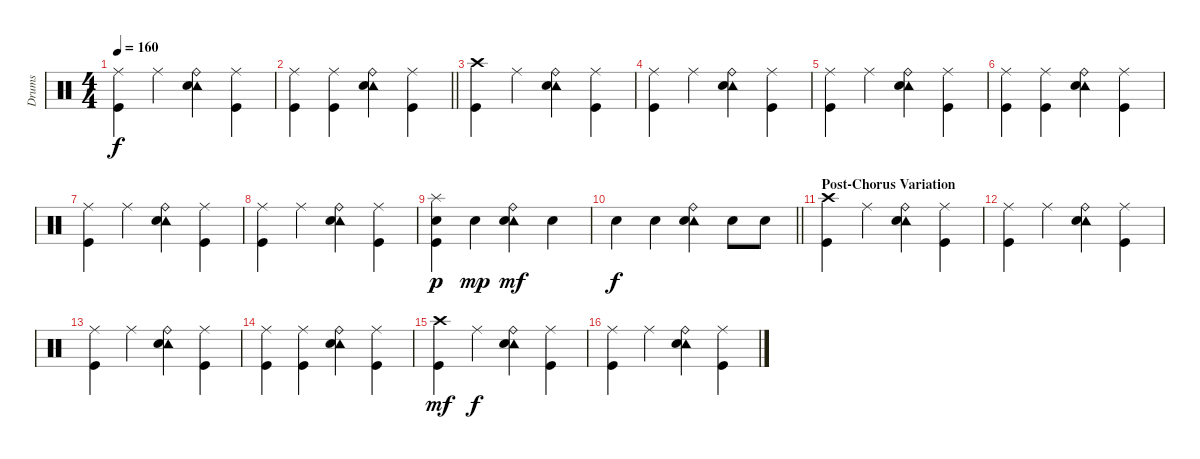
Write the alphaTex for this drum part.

\track ("Drums" "Drums") {instrument percussion}
\staff {score}
\articulation defaults
\ts (4 4)
\tempo 160
\clef neutral
\ks c
("Ride (middle)" "Kick (hit)").4{dy f} "Ride (middle)".4 ("Tambourine (hit)" "Ride (bell)" "Electric Snare (hit)").4 ("Ride (middle)" "Kick (hit)").4 |
\barLineRight lightlight
("Ride (middle)" "Kick (hit)").4 ("Ride (middle)" "Kick (hit)").4 ("Tambourine (hit)" "Ride (bell)" "Electric Snare (hit)").4 ("Ride (middle)" "Kick (hit)").4 |
("Crash high (hit)" "Kick (hit)").4 "Ride (middle)".4 ("Tambourine (hit)" "Ride (bell)" "Electric Snare (hit)").4 ("Ride (middle)" "Kick (hit)").4 |
("Ride (middle)" "Kick (hit)").4 "Ride (middle)".4 ("Tambourine (hit)" "Ride (bell)" "Electric Snare (hit)").4 ("Ride (middle)" "Kick (hit)").4 |
("Ride (middle)" "Kick (hit)").4 "Ride (middle)".4 ("Tambourine (hit)" "Ride (bell)" "Electric Snare (hit)").4 ("Ride (middle)" "Kick (hit)").4 |
("Ride (middle)" "Kick (hit)").4 ("Ride (middle)" "Kick (hit)").4 ("Tambourine (hit)" "Ride (bell)" "Electric Snare (hit)").4 ("Ride (middle)" "Kick (hit)").4 |
("Ride (middle)" "Kick (hit)").4 "Ride (middle)".4 ("Tambourine (hit)" "Ride (bell)" "Electric Snare (hit)").4 ("Ride (middle)" "Kick (hit)").4 |
("Ride (middle)" "Kick (hit)").4 "Ride (middle)".4 ("Tambourine (hit)" "Ride (bell)" "Electric Snare (hit)").4 ("Ride (middle)" "Kick (hit)").4 |
("Splash (hit)" "Electric Snare (hit)" "Kick (hit)").4{dy p} "Electric Snare (hit)".4{dy mp} ("Tambourine (hit)" "Ride (bell)" "Electric Snare (hit)").4{dy mf} "Electric Snare (hit)".4 |
\barLineRight lightlight "Electric Snare (hit)".4{dy f} "Electric Snare (hit)".4
("Tambourine (hit)" "Ride (bell)" "Electric Snare (hit)").4 "Electric Snare (hit)".8 "Electric Snare (hit)".8 |
\section ("" "Post-Chorus Variation")
("Crash high (hit)" "Kick (hit)").4 "Ride (middle)".4 ("Tambourine (hit)" "Ride (bell)" "Electric Snare (hit)").4 ("Ride (middle)" "Kick (hit)").4 |
("Ride (middle)" "Kick (hit)").4 "Ride (middle)".4 ("Tambourine (hit)" "Ride (bell)" "Electric Snare (hit)").4 ("Ride (middle)" "Kick (hit)").4 |
("Ride (middle)" "Kick (hit)").4 "Ride (middle)".4 ("Tambourine (hit)" "Ride (bell)" "Electric Snare (hit)").4 ("Ride (middle)" "Kick (hit)").4 |
("Ride (middle)" "Kick (hit)").4 ("Ride (middle)" "Kick (hit)").4 ("Tambourine (hit)" "Ride (bell)" "Electric Snare (hit)").4 ("Ride (middle)" "Kick (hit)").4 |
("Crash high (hit)" "Kick (hit)").4{dy mf} "Ride (middle)".4{dy f} ("Tambourine (hit)" "Ride (bell)" "Electric Snare (hit)").4 ("Ride (middle)" "Kick (hit)").4 |
("Ride (middle)" "Kick (hit)").4 "Ride (middle)".4 ("Tambourine (hit)" "Ride (bell)" "Electric Snare (hit)").4 ("Ride (middle)" "Kick (hit)").4
